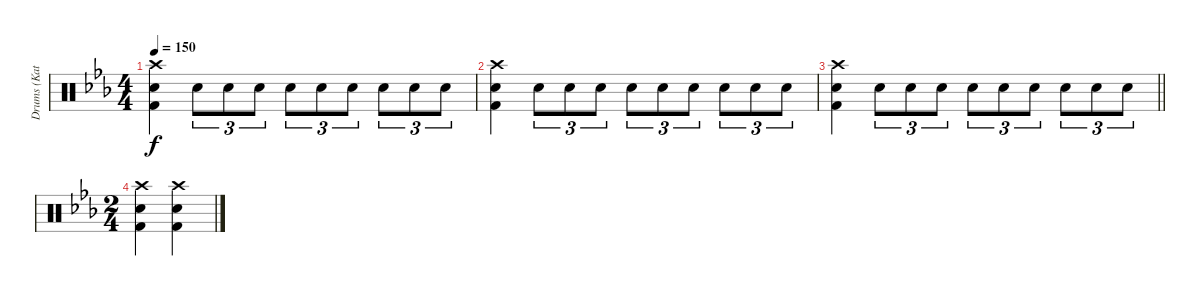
\track ("Drums (Katsuji)" "Drums (Kat") {instrument percussion}
\staff {score}
\articulation defaults
\ts (4 4)
\tempo 150
\clef neutral
\ks eb
("Crash high (hit)" "Snare (hit) 2" "Kick (hit) 2").4{dy f} "Snare (hit) 2".8{tu (3 2)} "Snare (hit) 2".8{tu (3 2)} "Snare (hit) 2".8{tu (3 2)} "Snare (hit) 2".8{tu (3 2)} "Snare (hit) 2".8{tu (3 2)} "Snare (hit) 2".8{tu (3 2)} "Snare (hit) 2".8{tu (3 2)} "Snare (hit) 2".8{tu (3 2)} "Snare (hit) 2".8{tu (3 2)} |
("Crash high (hit)" "Snare (hit) 2" "Kick (hit) 2").4 "Snare (hit) 2".8{tu (3 2)} "Snare (hit) 2".8{tu (3 2)} "Snare (hit) 2".8{tu (3 2)} "Snare (hit) 2".8{tu (3 2)} "Snare (hit) 2".8{tu (3 2)} "Snare (hit) 2".8{tu (3 2)} "Snare (hit) 2".8{tu (3 2)} "Snare (hit) 2".8{tu (3 2)} "Snare (hit) 2".8{tu (3 2)} |
\barLineRight lightlight
("Crash high (hit)" "Snare (hit) 2" "Kick (hit) 2").4 "Snare (hit) 2".8{tu (3 2)} "Snare (hit) 2".8{tu (3 2)} "Snare (hit) 2".8{tu (3 2)} "Snare (hit) 2".8{tu (3 2)} "Snare (hit) 2".8{tu (3 2)} "Snare (hit) 2".8{tu (3 2)} "Snare (hit) 2".8{tu (3 2)} "Snare (hit) 2".8{tu (3 2)} "Snare (hit) 2".8{tu (3 2)} |
\ts (2 4)
("Crash high (hit)" "Snare (hit) 2" "Kick (hit) 2").4 ("Crash high (hit)" "Snare (hit) 2" "Kick (hit) 2").4
